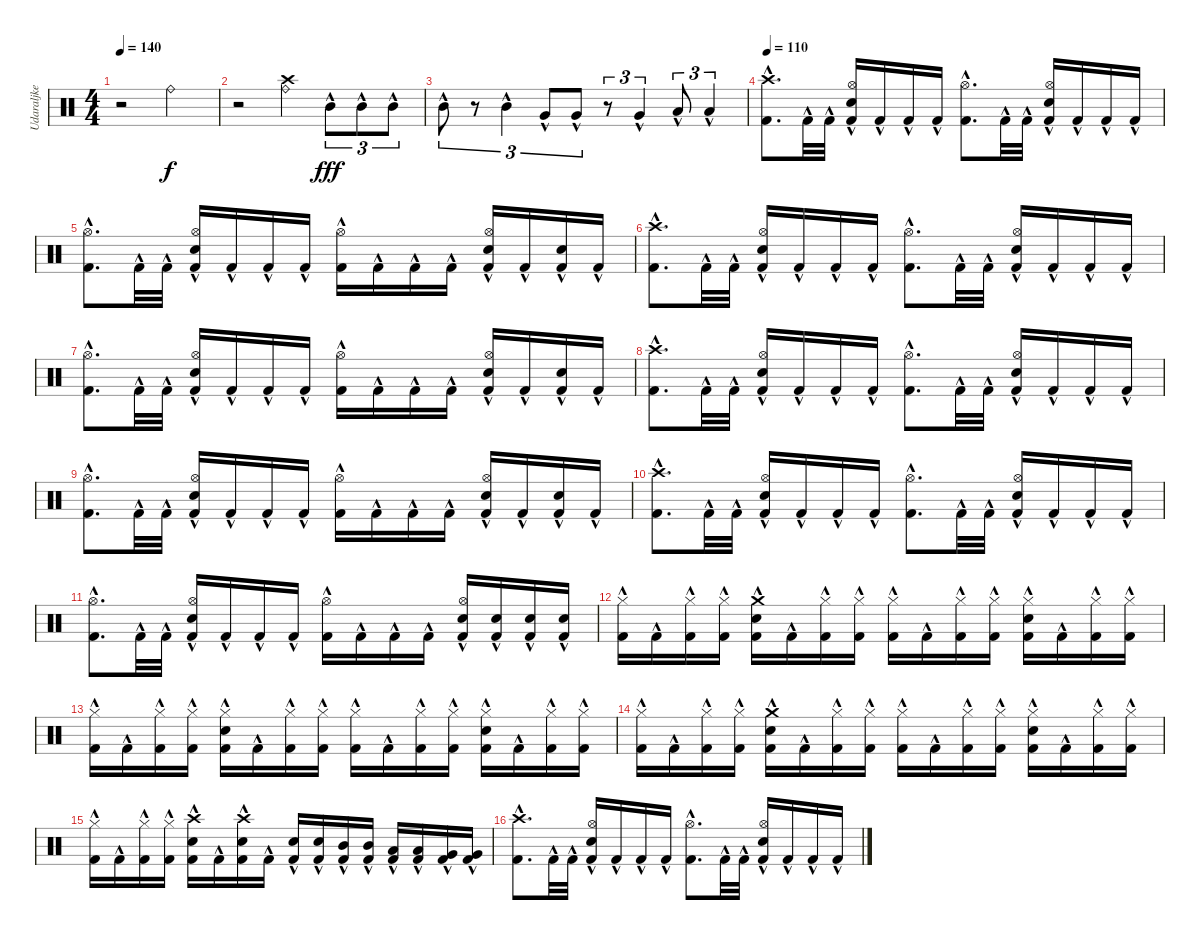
\track ("Udaraljke" "Udaraljke") {instrument percussion}
\staff {score}
\articulation defaults
\ts (4 4)
\tempo 140
\clef neutral
\ks c
r.2{dy f} "Ride (bell)".2 |
r.2 ("Crash high (hit)" "Ride (bell)").4 "Mid Tom (hit)"{hac}.8{tu (3 2) dy fff} "Mid Tom (hit)"{hac}.8{tu (3 2)} "Mid Tom (hit)"{hac}.8{tu (3 2)} |
"Mid Tom (hit)"{hac}.8{tu (3 2)} r.8{tu (3 2)} "Mid Tom (hit)"{hac}.4{tu (3 2)} "Very Low Tom (hit)"{hac}.8{tu (3 2)} "Very Low Tom (hit)"{hac}.8{tu (3 2)} r.8{tu (3 2)} "Very Low Tom (hit)"{hac}.4{tu (3 2)} "Low Floor Tom (hit)"{hac}.8{tu (3 2)} "Low Floor Tom (hit)"{hac}.4{tu (3 2)} |
\tempo 110
("Crash high (hit)" "Kick (hit) 2"{hac}).8{d} "Kick (hit) 2"{hac}.32 "Kick (hit) 2"{hac}.32 ("Hi-Hat (open)" "Snare (hit) 2"{hac} "Kick (hit) 2"{hac}).16 "Kick (hit) 2"{hac}.16 "Kick (hit) 2"{hac}.16 "Kick (hit) 2"{hac}.16 ("Hi-Hat (open)" "Kick (hit) 2"{hac}).8{d} "Kick (hit) 2"{hac}.32 "Kick (hit) 2"{hac}.32 ("Hi-Hat (open)" "Snare (hit) 2"{hac} "Kick (hit) 2"{hac}).16 "Kick (hit) 2"{hac}.16 "Kick (hit) 2"{hac}.16 "Kick (hit) 2"{hac}.16 |
("Hi-Hat (open)" "Kick (hit) 2"{hac}).8{d} "Kick (hit) 2"{hac}.32 "Kick (hit) 2"{hac}.32 ("Hi-Hat (open)" "Snare (hit) 2"{hac} "Kick (hit) 2"{hac}).16 "Kick (hit) 2"{hac}.16 "Kick (hit) 2"{hac}.16 "Kick (hit) 2"{hac}.16 ("Hi-Hat (open)" "Kick (hit) 2"{hac}).16 "Kick (hit) 2"{hac}.16 "Kick (hit) 2"{hac}.16 "Kick (hit) 2"{hac}.16 ("Hi-Hat (open)" "Snare (hit) 2"{hac} "Kick (hit) 2"{hac}).16 "Kick (hit) 2"{hac}.16 ("Snare (hit) 2"{hac} "Kick (hit) 2"{hac}).16 "Kick (hit) 2"{hac}.16 |
("Crash high (hit)" "Kick (hit) 2"{hac}).8{d} "Kick (hit) 2"{hac}.32 "Kick (hit) 2"{hac}.32 ("Hi-Hat (open)" "Snare (hit) 2"{hac} "Kick (hit) 2"{hac}).16 "Kick (hit) 2"{hac}.16 "Kick (hit) 2"{hac}.16 "Kick (hit) 2"{hac}.16 ("Hi-Hat (open)" "Kick (hit) 2"{hac}).8{d} "Kick (hit) 2"{hac}.32 "Kick (hit) 2"{hac}.32 ("Hi-Hat (open)" "Snare (hit) 2"{hac} "Kick (hit) 2"{hac}).16 "Kick (hit) 2"{hac}.16 "Kick (hit) 2"{hac}.16 "Kick (hit) 2"{hac}.16 |
("Hi-Hat (open)" "Kick (hit) 2"{hac}).8{d} "Kick (hit) 2"{hac}.32 "Kick (hit) 2"{hac}.32 ("Hi-Hat (open)" "Snare (hit) 2"{hac} "Kick (hit) 2"{hac}).16 "Kick (hit) 2"{hac}.16 "Kick (hit) 2"{hac}.16 "Kick (hit) 2"{hac}.16 ("Hi-Hat (open)" "Kick (hit) 2"{hac}).16 "Kick (hit) 2"{hac}.16 "Kick (hit) 2"{hac}.16 "Kick (hit) 2"{hac}.16 ("Hi-Hat (open)" "Snare (hit) 2"{hac} "Kick (hit) 2"{hac}).16 "Kick (hit) 2"{hac}.16 ("Snare (hit) 2"{hac} "Kick (hit) 2"{hac}).16 "Kick (hit) 2"{hac}.16 |
("Crash high (hit)" "Kick (hit) 2"{hac}).8{d} "Kick (hit) 2"{hac}.32 "Kick (hit) 2"{hac}.32 ("Hi-Hat (open)" "Snare (hit) 2"{hac} "Kick (hit) 2"{hac}).16 "Kick (hit) 2"{hac}.16 "Kick (hit) 2"{hac}.16 "Kick (hit) 2"{hac}.16 ("Hi-Hat (open)" "Kick (hit) 2"{hac}).8{d} "Kick (hit) 2"{hac}.32 "Kick (hit) 2"{hac}.32 ("Hi-Hat (open)" "Snare (hit) 2"{hac} "Kick (hit) 2"{hac}).16 "Kick (hit) 2"{hac}.16 "Kick (hit) 2"{hac}.16 "Kick (hit) 2"{hac}.16 |
("Hi-Hat (open)" "Kick (hit) 2"{hac}).8{d} "Kick (hit) 2"{hac}.32 "Kick (hit) 2"{hac}.32 ("Hi-Hat (open)" "Snare (hit) 2"{hac} "Kick (hit) 2"{hac}).16 "Kick (hit) 2"{hac}.16 "Kick (hit) 2"{hac}.16 "Kick (hit) 2"{hac}.16 ("Hi-Hat (open)" "Kick (hit) 2"{hac}).16 "Kick (hit) 2"{hac}.16 "Kick (hit) 2"{hac}.16 "Kick (hit) 2"{hac}.16 ("Hi-Hat (open)" "Snare (hit) 2"{hac} "Kick (hit) 2"{hac}).16 "Kick (hit) 2"{hac}.16 ("Snare (hit) 2"{hac} "Kick (hit) 2"{hac}).16 "Kick (hit) 2"{hac}.16 |
("Crash high (hit)" "Kick (hit) 2"{hac}).8{d} "Kick (hit) 2"{hac}.32 "Kick (hit) 2"{hac}.32 ("Hi-Hat (open)" "Snare (hit) 2"{hac} "Kick (hit) 2"{hac}).16 "Kick (hit) 2"{hac}.16 "Kick (hit) 2"{hac}.16 "Kick (hit) 2"{hac}.16 ("Hi-Hat (open)" "Kick (hit) 2"{hac}).8{d} "Kick (hit) 2"{hac}.32 "Kick (hit) 2"{hac}.32 ("Hi-Hat (open)" "Snare (hit) 2"{hac} "Kick (hit) 2"{hac}).16 "Kick (hit) 2"{hac}.16 "Kick (hit) 2"{hac}.16 "Kick (hit) 2"{hac}.16 |
("Hi-Hat (open)" "Kick (hit) 2"{hac}).8{d} "Kick (hit) 2"{hac}.32 "Kick (hit) 2"{hac}.32 ("Hi-Hat (open)" "Snare (hit) 2"{hac} "Kick (hit) 2"{hac}).16 "Kick (hit) 2"{hac}.16 "Kick (hit) 2"{hac}.16 "Kick (hit) 2"{hac}.16 ("Hi-Hat (open)" "Kick (hit) 2"{hac}).16 "Kick (hit) 2"{hac}.16 "Kick (hit) 2"{hac}.16 "Kick (hit) 2"{hac}.16 ("Hi-Hat (open)" "Snare (hit) 2"{hac} "Kick (hit) 2"{hac}).16 ("Snare (hit) 2"{hac} "Kick (hit) 2"{hac}).16 ("Snare (hit) 2"{hac} "Kick (hit) 2"{hac}).16 ("Snare (hit) 2"{hac} "Kick (hit) 2"{hac}).16 |
("Hi-Hat (closed)" "Kick (hit) 2"{hac}).16 "Kick (hit) 2"{hac}.16 ("Hi-Hat (closed)" "Kick (hit) 2"{hac}).16 ("Hi-Hat (closed)" "Kick (hit) 2"{hac}).16 ("Crash medium (hit)" "Snare (hit) 2"{hac} "Kick (hit) 2"{hac}).16 "Kick (hit) 2"{hac}.16 ("Hi-Hat (closed)" "Kick (hit) 2"{hac}).16 ("Hi-Hat (closed)" "Kick (hit) 2"{hac}).16 ("Hi-Hat (closed)" "Kick (hit) 2"{hac}).16 "Kick (hit) 2"{hac}.16 ("Hi-Hat (closed)" "Kick (hit) 2"{hac}).16 ("Hi-Hat (closed)" "Kick (hit) 2"{hac}).16 ("Hi-Hat (closed)" "Snare (hit) 2"{hac} "Kick (hit) 2"{hac}).16 "Kick (hit) 2"{hac}.16 ("Hi-Hat (closed)" "Kick (hit) 2"{hac}).16 ("Hi-Hat (closed)" "Kick (hit) 2"{hac}).16 |
("Hi-Hat (closed)" "Kick (hit) 2"{hac}).16 "Kick (hit) 2"{hac}.16 ("Hi-Hat (closed)" "Kick (hit) 2"{hac}).16 ("Hi-Hat (closed)" "Kick (hit) 2"{hac}).16 ("Hi-Hat (closed)" "Snare (hit) 2"{hac} "Kick (hit) 2"{hac}).16 "Kick (hit) 2"{hac}.16 ("Hi-Hat (closed)" "Kick (hit) 2"{hac}).16 ("Hi-Hat (closed)" "Kick (hit) 2"{hac}).16 ("Hi-Hat (closed)" "Kick (hit) 2"{hac}).16 "Kick (hit) 2"{hac}.16 ("Hi-Hat (closed)" "Kick (hit) 2"{hac}).16 ("Hi-Hat (closed)" "Kick (hit) 2"{hac}).16 ("Hi-Hat (closed)" "Snare (hit) 2"{hac} "Kick (hit) 2"{hac}).16 "Kick (hit) 2"{hac}.16 ("Hi-Hat (closed)" "Kick (hit) 2"{hac}).16 ("Hi-Hat (closed)" "Kick (hit) 2"{hac}).16 |
("Hi-Hat (closed)" "Kick (hit) 2"{hac}).16 "Kick (hit) 2"{hac}.16 ("Hi-Hat (closed)" "Kick (hit) 2"{hac}).16 ("Hi-Hat (closed)" "Kick (hit) 2"{hac}).16 ("Crash medium (hit)" "Snare (hit) 2"{hac} "Kick (hit) 2"{hac}).16 "Kick (hit) 2"{hac}.16 ("Hi-Hat (closed)" "Kick (hit) 2"{hac}).16 ("Hi-Hat (closed)" "Kick (hit) 2"{hac}).16 ("Hi-Hat (closed)" "Kick (hit) 2"{hac}).16 "Kick (hit) 2"{hac}.16 ("Hi-Hat (closed)" "Kick (hit) 2"{hac}).16 ("Hi-Hat (closed)" "Kick (hit) 2"{hac}).16 ("Hi-Hat (closed)" "Snare (hit) 2"{hac} "Kick (hit) 2"{hac}).16 "Kick (hit) 2"{hac}.16 ("Hi-Hat (closed)" "Kick (hit) 2"{hac}).16 ("Hi-Hat (closed)" "Kick (hit) 2"{hac}).16 |
("Hi-Hat (closed)" "Kick (hit) 2"{hac}).16 "Kick (hit) 2"{hac}.16 ("Hi-Hat (closed)" "Kick (hit) 2"{hac}).16 ("Hi-Hat (closed)" "Kick (hit) 2"{hac}).16 ("Crash high (hit)" "Snare (hit) 2"{hac} "Kick (hit) 2"{hac}).16 "Kick (hit) 2"{hac}.16 ("Crash high (hit)" "Snare (hit) 2"{hac} "Kick (hit) 2"{hac}).16 "Kick (hit) 2"{hac}.16 ("Snare (hit) 2"{hac} "Kick (hit) 2"{hac}).16 ("Snare (hit) 2"{hac} "Kick (hit) 2"{hac}).16 ("Mid Tom (hit)"{hac} "Kick (hit) 2"{hac}).16 ("Mid Tom (hit)"{hac} "Kick (hit) 2"{hac}).16 ("Low Tom (hit)"{hac} "Kick (hit) 2"{hac}).16 ("Low Tom (hit)"{hac} "Kick (hit) 2"{hac}).16 ("Very Low Tom (hit)"{hac} "Kick (hit) 2"{hac}).16 ("Very Low Tom (hit)"{hac} "Kick (hit) 2"{hac}).16 |
("Crash high (hit)" "Kick (hit) 2"{hac}).8{d} "Kick (hit) 2"{hac}.32 "Kick (hit) 2"{hac}.32 ("Hi-Hat (open)" "Snare (hit) 2"{hac} "Kick (hit) 2"{hac}).16 "Kick (hit) 2"{hac}.16 "Kick (hit) 2"{hac}.16 "Kick (hit) 2"{hac}.16 ("Hi-Hat (open)" "Kick (hit) 2"{hac}).8{d} "Kick (hit) 2"{hac}.32 "Kick (hit) 2"{hac}.32 ("Hi-Hat (open)" "Snare (hit) 2"{hac} "Kick (hit) 2"{hac}).16 "Kick (hit) 2"{hac}.16 "Kick (hit) 2"{hac}.16 "Kick (hit) 2"{hac}.16
